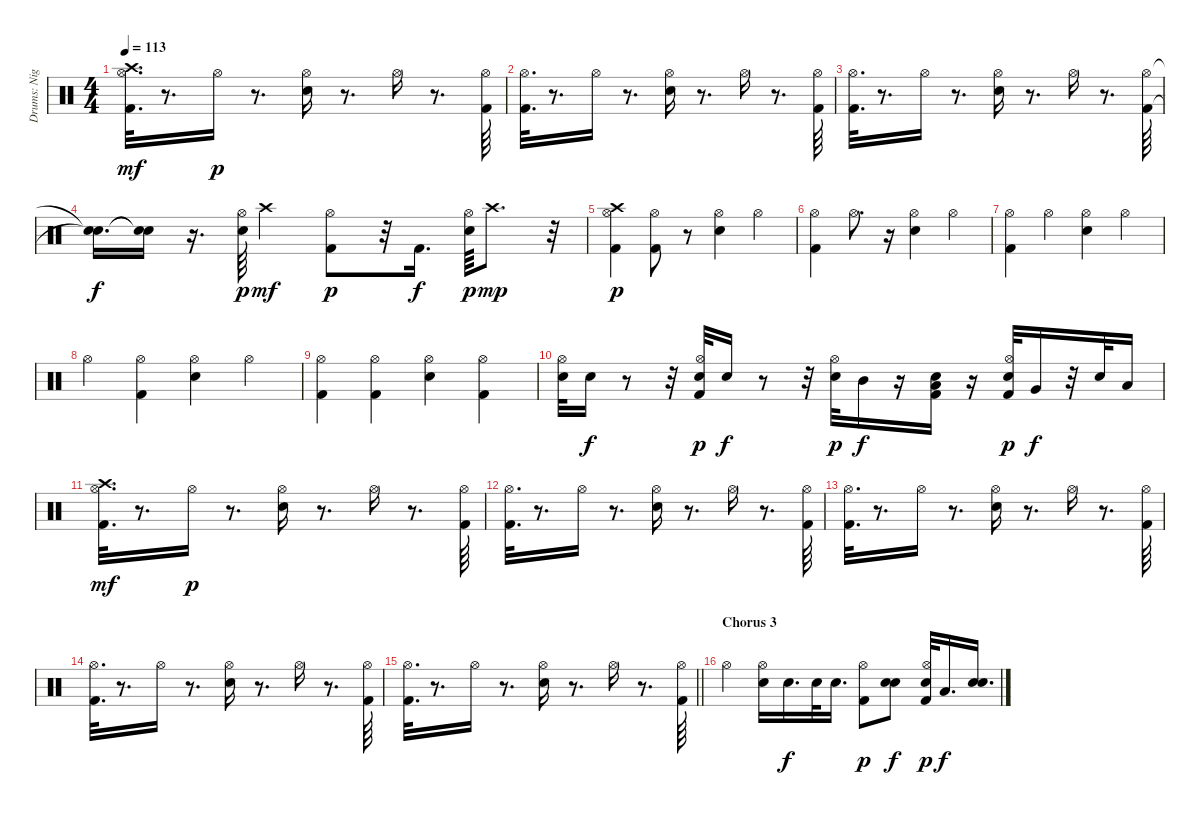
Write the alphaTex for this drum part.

\track ("Drums: Nigel Olsson" "Drums: Nig") {instrument percussion}
\staff {score}
\articulation defaults
\ts (4 4)
\tempo 113
\clef neutral
\ks c
("Kick (hit) 2" "Hi-Hat (open)" "Crash high (hit)").32{d dy mf} r.8{d} "Hi-Hat (open)".16{dy p} r.8{d} ("Snare (hit) 2" "Hi-Hat (open)").16 r.8{d} "Hi-Hat (open)".16 r.8{d} ("Kick (hit) 2" "Hi-Hat (open)").64 |
("Kick (hit) 2" "Hi-Hat (open)").32{d} r.8{d} "Hi-Hat (open)".16 r.8{d} ("Snare (hit) 2" "Hi-Hat (open)").16 r.8{d} "Hi-Hat (open)".16 r.8{d} ("Kick (hit) 2" "Hi-Hat (open)").64 |
("Kick (hit) 2" "Hi-Hat (open)").32{d} r.8{d} "Hi-Hat (open)".16 r.8{d} ("Snare (hit) 2" "Hi-Hat (open)").16 r.8{d} "Hi-Hat (open)".16 r.8{d} ("Kick (hit) 2" "Hi-Hat (open)").64 |
("Snare (hit)"{t} "Snare (hit)"{t}).16{d dy f} ("Snare (hit)"{t} "Snare (hit)"{t}).16 r.16{d} ("Snare (hit) 2" "Hi-Hat (open)").64{dy p} "Crash high (hit)".4{dy mf} ("Hi-Hat (open)" "Kick (hit) 2").8{dy p} r.32 "Kick (hit) 2".16{d dy f} ("Snare (hit) 2" "Hi-Hat (open)").64{dy p} "Crash high (hit)".8{d dy mp} r.32 |
("Crash high (hit)" "Kick (hit) 2" "Hi-Hat (open)").4{dy p} ("Kick (hit) 2" "Hi-Hat (open)").8 r.8 ("Snare (hit) 2" "Hi-Hat (open)").4 "Hi-Hat (open)".4 |
("Kick (hit) 2" "Hi-Hat (open)").4 "Hi-Hat (open)".8{d} r.16 ("Snare (hit) 2" "Hi-Hat (open)").4 "Hi-Hat (open)".4 |
("Kick (hit) 2" "Hi-Hat (open)").4 "Hi-Hat (open)".4 ("Snare (hit) 2" "Hi-Hat (open)").4 "Hi-Hat (open)".4 |
"Hi-Hat (open)".4 ("Kick (hit) 2" "Hi-Hat (open)").4 ("Snare (hit) 2" "Hi-Hat (open)").4 "Hi-Hat (open)".4 |
("Kick (hit) 2" "Hi-Hat (open)").4 ("Kick (hit) 2" "Hi-Hat (open)").4 ("Snare (hit) 2" "Hi-Hat (open)").4 ("Kick (hit) 2" "Hi-Hat (open)").4 |
("Snare (hit) 2" "Hi-Hat (open)").32 "Electric Snare (hit)".16{dy f} r.8 r.32 ("Snare (hit) 2" "Kick (hit) 2" "Hi-Hat (open)").32{dy p} "Electric Snare (hit)".16{dy f} r.8 r.32 ("Snare (hit) 2" "Hi-Hat (open)").32{dy p} "Mid Tom (hit)".16{dy f} r.16 ("Snare (hit) 2" "Kick (hit) 2" "Low Tom (hit)").16 r.16 ("Snare (hit) 2" "Kick (hit) 2" "Hi-Hat (open)").32{dy p} "Very Low Tom (hit)".16{dy f} r.32 "Snare (hit) 2".32 "Low Floor Tom (hit)".16 |
("Kick (hit) 2" "Hi-Hat (open)" "Crash high (hit)").32{d dy mf} r.8{d} "Hi-Hat (open)".16{dy p} r.8{d} ("Snare (hit) 2" "Hi-Hat (open)").16 r.8{d} "Hi-Hat (open)".16 r.8{d} ("Kick (hit) 2" "Hi-Hat (open)").64 |
("Kick (hit) 2" "Hi-Hat (open)").32{d} r.8{d} "Hi-Hat (open)".16 r.8{d} ("Snare (hit) 2" "Hi-Hat (open)").16 r.8{d} "Hi-Hat (open)".16 r.8{d} ("Kick (hit) 2" "Hi-Hat (open)").64 |
("Kick (hit) 2" "Hi-Hat (open)").32{d} r.8{d} "Hi-Hat (open)".16 r.8{d} ("Snare (hit) 2" "Hi-Hat (open)").16 r.8{d} "Hi-Hat (open)".16 r.8{d} ("Kick (hit) 2" "Hi-Hat (open)").64 |
("Kick (hit) 2" "Hi-Hat (open)").32{d} r.8{d} "Hi-Hat (open)".16 r.8{d} ("Snare (hit) 2" "Hi-Hat (open)").16 r.8{d} "Hi-Hat (open)".16 r.8{d} ("Kick (hit) 2" "Hi-Hat (open)").64 |
\barLineRight lightlight
("Kick (hit) 2" "Hi-Hat (open)").32{d} r.8{d} "Hi-Hat (open)".16 r.8{d} ("Snare (hit) 2" "Hi-Hat (open)").16 r.8{d} "Hi-Hat (open)".16 r.8{d} ("Kick (hit) 2" "Hi-Hat (open)").64 |
\section ("" "Chorus 3")
"Hi-Hat (open)".4 ("Hi-Hat (open)" "Snare (hit) 2").16 "Electric Snare (hit)".16{d dy f} "Snare (hit) 2".32 "Electric Snare (hit)".16{d} ("Hi-Hat (open)" "Kick (hit) 2").8{dy p} ("Snare (hit) 2" "Electric Snare (hit)").8{dy f} ("Kick (hit) 2" "Hi-Hat (open)" "Snare (hit) 2").32{dy p} "Low Tom (hit)".16{d dy f} ("Snare (hit) 2" "Electric Snare (hit)").16{d}
